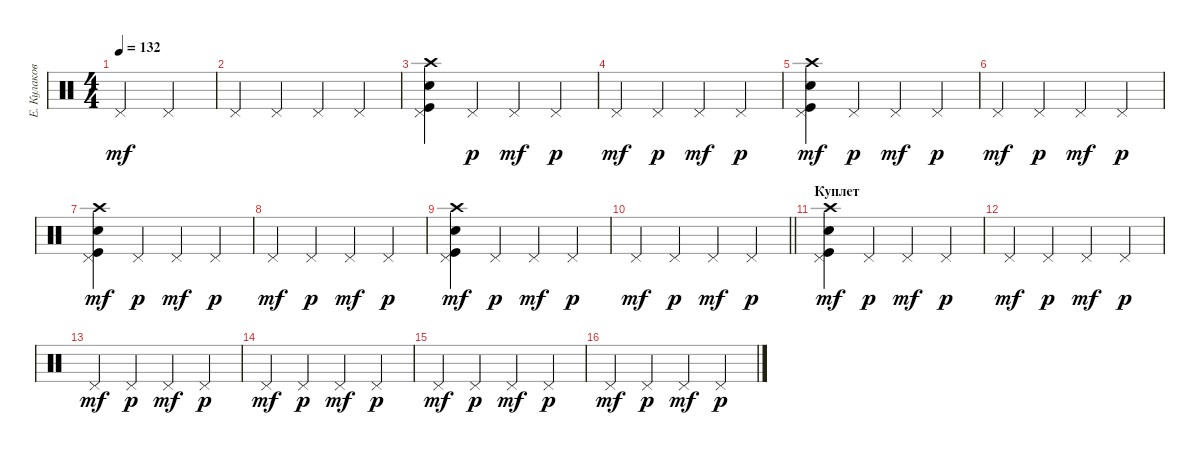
\track ("Е. Кулаков" "Е. Кулаков") {instrument percussion}
\staff {score}
\articulation defaults
\ts (4 4)
\tempo 132
\clef neutral
\ks c "Pedal Hi-Hat (hit)".2{dy mf} "Pedal Hi-Hat (hit)".2
|
"Pedal Hi-Hat (hit)".4 "Pedal Hi-Hat (hit)".4 "Pedal Hi-Hat (hit)".4 "Pedal Hi-Hat (hit)".4 |
("Snare (hit) 2" "Kick (hit)" "Crash high (hit)" "Pedal Hi-Hat (hit)").4 "Pedal Hi-Hat (hit)".4{dy p} "Pedal Hi-Hat (hit)".4{dy mf} "Pedal Hi-Hat (hit)".4{dy p} |
"Pedal Hi-Hat (hit)".4{dy mf} "Pedal Hi-Hat (hit)".4{dy p} "Pedal Hi-Hat (hit)".4{dy mf} "Pedal Hi-Hat (hit)".4{dy p} |
("Snare (hit) 2" "Kick (hit)" "Crash high (hit)" "Pedal Hi-Hat (hit)").4{dy mf} "Pedal Hi-Hat (hit)".4{dy p} "Pedal Hi-Hat (hit)".4{dy mf} "Pedal Hi-Hat (hit)".4{dy p} |
"Pedal Hi-Hat (hit)".4{dy mf} "Pedal Hi-Hat (hit)".4{dy p} "Pedal Hi-Hat (hit)".4{dy mf} "Pedal Hi-Hat (hit)".4{dy p} |
("Snare (hit) 2" "Kick (hit)" "Crash high (hit)" "Pedal Hi-Hat (hit)").4{dy mf} "Pedal Hi-Hat (hit)".4{dy p} "Pedal Hi-Hat (hit)".4{dy mf} "Pedal Hi-Hat (hit)".4{dy p} |
"Pedal Hi-Hat (hit)".4{dy mf} "Pedal Hi-Hat (hit)".4{dy p} "Pedal Hi-Hat (hit)".4{dy mf} "Pedal Hi-Hat (hit)".4{dy p} |
("Snare (hit) 2" "Kick (hit)" "Crash high (hit)" "Pedal Hi-Hat (hit)").4{dy mf} "Pedal Hi-Hat (hit)".4{dy p} "Pedal Hi-Hat (hit)".4{dy mf} "Pedal Hi-Hat (hit)".4{dy p} |
\barLineRight lightlight "Pedal Hi-Hat (hit)".4{dy mf} "Pedal Hi-Hat (hit)".4{dy p} "Pedal Hi-Hat (hit)".4{dy mf} "Pedal Hi-Hat (hit)".4{dy p}
|
\section ("" "Куплет")
("Snare (hit) 2" "Kick (hit)" "Crash high (hit)" "Pedal Hi-Hat (hit)").4{dy mf} "Pedal Hi-Hat (hit)".4{dy p} "Pedal Hi-Hat (hit)".4{dy mf} "Pedal Hi-Hat (hit)".4{dy p} |
"Pedal Hi-Hat (hit)".4{dy mf} "Pedal Hi-Hat (hit)".4{dy p} "Pedal Hi-Hat (hit)".4{dy mf} "Pedal Hi-Hat (hit)".4{dy p} |
"Pedal Hi-Hat (hit)".4{dy mf} "Pedal Hi-Hat (hit)".4{dy p} "Pedal Hi-Hat (hit)".4{dy mf} "Pedal Hi-Hat (hit)".4{dy p} |
"Pedal Hi-Hat (hit)".4{dy mf} "Pedal Hi-Hat (hit)".4{dy p} "Pedal Hi-Hat (hit)".4{dy mf} "Pedal Hi-Hat (hit)".4{dy p} |
"Pedal Hi-Hat (hit)".4{dy mf} "Pedal Hi-Hat (hit)".4{dy p} "Pedal Hi-Hat (hit)".4{dy mf} "Pedal Hi-Hat (hit)".4{dy p} |
"Pedal Hi-Hat (hit)".4{dy mf} "Pedal Hi-Hat (hit)".4{dy p} "Pedal Hi-Hat (hit)".4{dy mf} "Pedal Hi-Hat (hit)".4{dy p}
